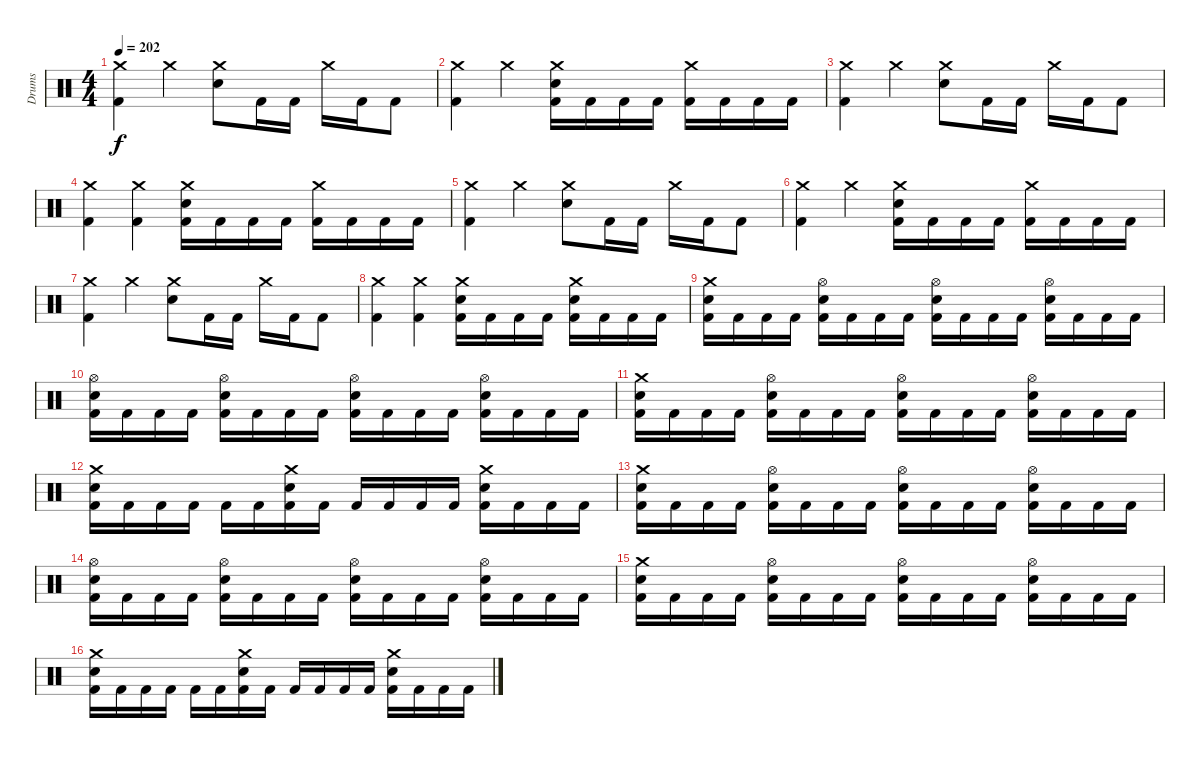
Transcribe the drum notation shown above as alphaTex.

\track ("Drums" "Drums") {instrument percussion}
\staff {score}
\articulation defaults
\ts (4 4)
\tempo 202
\clef neutral
\ks c
("Crash medium (hit)" "Kick (hit) 2").4{dy f} "Crash medium (hit)".4 ("Crash medium (hit)" "Electric Snare (hit)").8 "Kick (hit) 2".16 "Kick (hit) 2".16 "Crash medium (hit)".16 "Kick (hit) 2".16 "Kick (hit) 2".8 |
("Crash medium (hit)" "Kick (hit) 2").4 "Crash medium (hit)".4 ("Crash medium (hit)" "Electric Snare (hit)" "Kick (hit) 2").16 "Kick (hit) 2".16 "Kick (hit) 2".16 "Kick (hit) 2".16 ("Crash medium (hit)" "Kick (hit) 2").16 "Kick (hit) 2".16 "Kick (hit) 2".16 "Kick (hit) 2".16 |
("Crash medium (hit)" "Kick (hit) 2").4 "Crash medium (hit)".4 ("Crash medium (hit)" "Electric Snare (hit)").8 "Kick (hit) 2".16 "Kick (hit) 2".16 "Crash medium (hit)".16 "Kick (hit) 2".16 "Kick (hit) 2".8 |
("Crash medium (hit)" "Kick (hit) 2").4 ("Crash medium (hit)" "Kick (hit) 2").4 ("Crash medium (hit)" "Electric Snare (hit)" "Kick (hit) 2").16 "Kick (hit) 2".16 "Kick (hit) 2".16 "Kick (hit) 2".16 ("Crash medium (hit)" "Kick (hit) 2").16 "Kick (hit) 2".16 "Kick (hit) 2".16 "Kick (hit) 2".16 |
("Crash medium (hit)" "Kick (hit) 2").4 "Crash medium (hit)".4 ("Crash medium (hit)" "Electric Snare (hit)").8 "Kick (hit) 2".16 "Kick (hit) 2".16 "Crash medium (hit)".16 "Kick (hit) 2".16 "Kick (hit) 2".8 |
("Crash medium (hit)" "Kick (hit) 2").4 "Crash medium (hit)".4 ("Crash medium (hit)" "Electric Snare (hit)" "Kick (hit) 2").16 "Kick (hit) 2".16 "Kick (hit) 2".16 "Kick (hit) 2".16 ("Crash medium (hit)" "Kick (hit) 2").16 "Kick (hit) 2".16 "Kick (hit) 2".16 "Kick (hit) 2".16 |
("Crash medium (hit)" "Kick (hit) 2").4 "Crash medium (hit)".4 ("Crash medium (hit)" "Electric Snare (hit)").8 "Kick (hit) 2".16 "Kick (hit) 2".16 "Crash medium (hit)".16 "Kick (hit) 2".16 "Kick (hit) 2".8 |
("Crash medium (hit)" "Kick (hit) 2").4 ("Crash medium (hit)" "Kick (hit) 2").4 ("Crash medium (hit)" "Electric Snare (hit)" "Kick (hit) 2").16 "Kick (hit) 2".16 "Kick (hit) 2".16 "Kick (hit) 2".16 ("Crash medium (hit)" "Electric Snare (hit)" "Kick (hit) 2").16 "Kick (hit) 2".16 "Kick (hit) 2".16 "Kick (hit) 2".16 |
("Crash medium (hit)" "Electric Snare (hit)" "Kick (hit) 2").16 "Kick (hit) 2".16 "Kick (hit) 2".16 "Kick (hit) 2".16 ("Hi-Hat (open)" "Electric Snare (hit)" "Kick (hit) 2").16 "Kick (hit) 2".16 "Kick (hit) 2".16 "Kick (hit) 2".16 ("Hi-Hat (open)" "Electric Snare (hit)" "Kick (hit) 2").16 "Kick (hit) 2".16 "Kick (hit) 2".16 "Kick (hit) 2".16 ("Hi-Hat (open)" "Electric Snare (hit)" "Kick (hit) 2").16 "Kick (hit) 2".16 "Kick (hit) 2".16 "Kick (hit) 2".16 |
("Hi-Hat (open)" "Electric Snare (hit)" "Kick (hit) 2").16 "Kick (hit) 2".16 "Kick (hit) 2".16 "Kick (hit) 2".16 ("Hi-Hat (open)" "Electric Snare (hit)" "Kick (hit) 2").16 "Kick (hit) 2".16 "Kick (hit) 2".16 "Kick (hit) 2".16 ("Hi-Hat (open)" "Electric Snare (hit)" "Kick (hit) 2").16 "Kick (hit) 2".16 "Kick (hit) 2".16 "Kick (hit) 2".16 ("Hi-Hat (open)" "Electric Snare (hit)" "Kick (hit) 2").16 "Kick (hit) 2".16 "Kick (hit) 2".16 "Kick (hit) 2".16 |
("Crash medium (hit)" "Electric Snare (hit)" "Kick (hit) 2").16 "Kick (hit) 2".16 "Kick (hit) 2".16 "Kick (hit) 2".16 ("Hi-Hat (open)" "Electric Snare (hit)" "Kick (hit) 2").16 "Kick (hit) 2".16 "Kick (hit) 2".16 "Kick (hit) 2".16 ("Hi-Hat (open)" "Electric Snare (hit)" "Kick (hit) 2").16 "Kick (hit) 2".16 "Kick (hit) 2".16 "Kick (hit) 2".16 ("Hi-Hat (open)" "Electric Snare (hit)" "Kick (hit) 2").16 "Kick (hit) 2".16 "Kick (hit) 2".16 "Kick (hit) 2".16 |
("Crash medium (hit)" "Electric Snare (hit)" "Kick (hit) 2").16 "Kick (hit) 2".16 "Kick (hit) 2".16 "Kick (hit) 2".16 "Kick (hit) 2".16 "Kick (hit) 2".16 ("Crash medium (hit)" "Electric Snare (hit)" "Kick (hit) 2").16 "Kick (hit) 2".16 "Kick (hit) 2".16 "Kick (hit) 2".16 "Kick (hit) 2".16 "Kick (hit) 2".16 ("Crash medium (hit)" "Electric Snare (hit)" "Kick (hit) 2").16 "Kick (hit) 2".16 "Kick (hit) 2".16 "Kick (hit) 2".16 |
("Crash medium (hit)" "Electric Snare (hit)" "Kick (hit) 2").16 "Kick (hit) 2".16 "Kick (hit) 2".16 "Kick (hit) 2".16 ("Hi-Hat (open)" "Electric Snare (hit)" "Kick (hit) 2").16 "Kick (hit) 2".16 "Kick (hit) 2".16 "Kick (hit) 2".16 ("Hi-Hat (open)" "Electric Snare (hit)" "Kick (hit) 2").16 "Kick (hit) 2".16 "Kick (hit) 2".16 "Kick (hit) 2".16 ("Hi-Hat (open)" "Electric Snare (hit)" "Kick (hit) 2").16 "Kick (hit) 2".16 "Kick (hit) 2".16 "Kick (hit) 2".16 |
("Hi-Hat (open)" "Electric Snare (hit)" "Kick (hit) 2").16 "Kick (hit) 2".16 "Kick (hit) 2".16 "Kick (hit) 2".16 ("Hi-Hat (open)" "Electric Snare (hit)" "Kick (hit) 2").16 "Kick (hit) 2".16 "Kick (hit) 2".16 "Kick (hit) 2".16 ("Hi-Hat (open)" "Electric Snare (hit)" "Kick (hit) 2").16 "Kick (hit) 2".16 "Kick (hit) 2".16 "Kick (hit) 2".16 ("Hi-Hat (open)" "Electric Snare (hit)" "Kick (hit) 2").16 "Kick (hit) 2".16 "Kick (hit) 2".16 "Kick (hit) 2".16 |
("Crash medium (hit)" "Electric Snare (hit)" "Kick (hit) 2").16 "Kick (hit) 2".16 "Kick (hit) 2".16 "Kick (hit) 2".16 ("Hi-Hat (open)" "Electric Snare (hit)" "Kick (hit) 2").16 "Kick (hit) 2".16 "Kick (hit) 2".16 "Kick (hit) 2".16 ("Hi-Hat (open)" "Electric Snare (hit)" "Kick (hit) 2").16 "Kick (hit) 2".16 "Kick (hit) 2".16 "Kick (hit) 2".16 ("Hi-Hat (open)" "Electric Snare (hit)" "Kick (hit) 2").16 "Kick (hit) 2".16 "Kick (hit) 2".16 "Kick (hit) 2".16 |
("Crash medium (hit)" "Electric Snare (hit)" "Kick (hit) 2").16 "Kick (hit) 2".16 "Kick (hit) 2".16 "Kick (hit) 2".16 "Kick (hit) 2".16 "Kick (hit) 2".16 ("Crash medium (hit)" "Electric Snare (hit)" "Kick (hit) 2").16 "Kick (hit) 2".16 "Kick (hit) 2".16 "Kick (hit) 2".16 "Kick (hit) 2".16 "Kick (hit) 2".16 ("Crash medium (hit)" "Electric Snare (hit)" "Kick (hit) 2").16 "Kick (hit) 2".16 "Kick (hit) 2".16 "Kick (hit) 2".16
